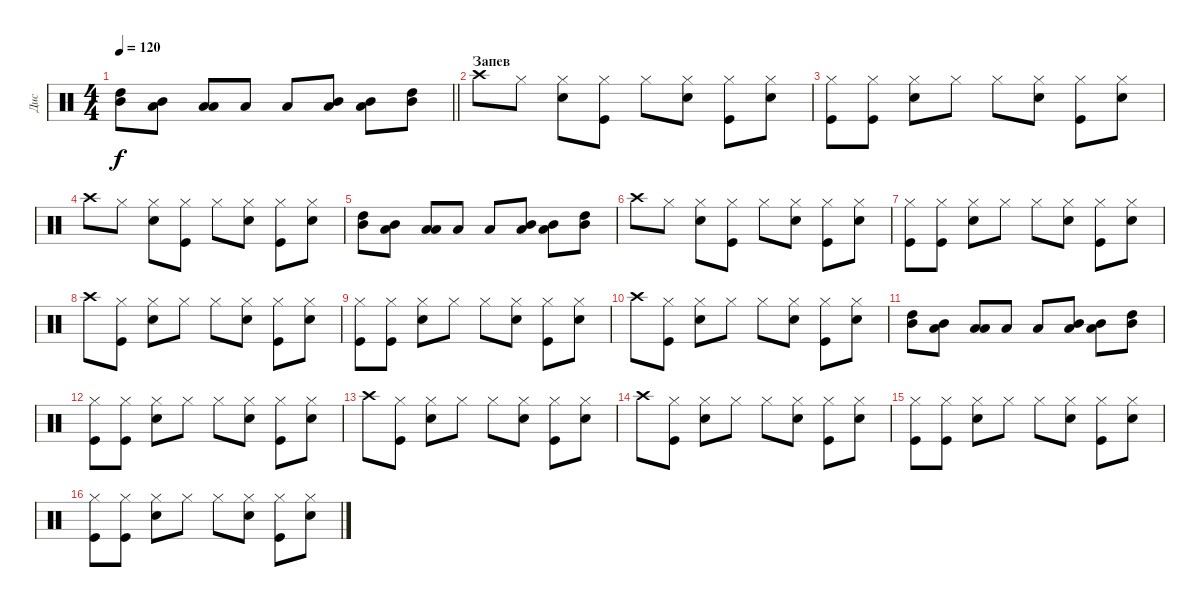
\track ("Дис" "Дис") {instrument percussion}
\staff {score}
\articulation defaults
\ts (4 4)
\tempo 120
\clef neutral
\barLineRight lightlight
\ks c
("High Tom (hit)" "Mid Tom (hit)").8{dy f} ("Mid Tom (hit)" "Low Tom (hit)").8 ("Low Tom (hit)" "Low Tom (hit)").8 "Low Tom (hit)".8 "Low Tom (hit)".8 ("Mid Tom (hit)" "Low Tom (hit)").8 ("Mid Tom (hit)" "Low Tom (hit)").8 ("High Tom (hit)" "Mid Tom (hit)").8 |
\section ("" "Запев")
"Crash high (hit)".8 "Hi-Hat (closed)".8 ("Hi-Hat (closed)" "Snare (hit) 2").8 ("Hi-Hat (closed)" "Kick (hit)").8 "Hi-Hat (closed)".8 ("Hi-Hat (closed)" "Snare (hit) 2").8 ("Hi-Hat (closed)" "Kick (hit)").8 ("Hi-Hat (closed)" "Snare (hit) 2").8 |
("Hi-Hat (closed)" "Kick (hit)").8 ("Hi-Hat (closed)" "Kick (hit)").8 ("Hi-Hat (closed)" "Snare (hit) 2").8 "Hi-Hat (closed)".8 "Hi-Hat (closed)".8 ("Hi-Hat (closed)" "Snare (hit) 2").8 ("Hi-Hat (closed)" "Kick (hit)").8 ("Hi-Hat (closed)" "Snare (hit) 2").8 |
"Crash high (hit)".8 "Hi-Hat (closed)".8 ("Hi-Hat (closed)" "Snare (hit) 2").8 ("Hi-Hat (closed)" "Kick (hit)").8 "Hi-Hat (closed)".8 ("Hi-Hat (closed)" "Snare (hit) 2").8 ("Hi-Hat (closed)" "Kick (hit)").8 ("Hi-Hat (closed)" "Snare (hit) 2").8 |
("High Tom (hit)" "Mid Tom (hit)").8 ("Mid Tom (hit)" "Low Tom (hit)").8 ("Low Tom (hit)" "Low Tom (hit)").8 "Low Tom (hit)".8 "Low Tom (hit)".8 ("Mid Tom (hit)" "Low Tom (hit)").8 ("Mid Tom (hit)" "Low Tom (hit)").8 ("High Tom (hit)" "Mid Tom (hit)").8 |
"Crash high (hit)".8 "Hi-Hat (closed)".8 ("Hi-Hat (closed)" "Snare (hit) 2").8 ("Hi-Hat (closed)" "Kick (hit)").8 "Hi-Hat (closed)".8 ("Hi-Hat (closed)" "Snare (hit) 2").8 ("Hi-Hat (closed)" "Kick (hit)").8 ("Hi-Hat (closed)" "Snare (hit) 2").8 |
("Hi-Hat (closed)" "Kick (hit)").8 ("Hi-Hat (closed)" "Kick (hit)").8 ("Hi-Hat (closed)" "Snare (hit) 2").8 "Hi-Hat (closed)".8 "Hi-Hat (closed)".8 ("Hi-Hat (closed)" "Snare (hit) 2").8 ("Hi-Hat (closed)" "Kick (hit)").8 ("Hi-Hat (closed)" "Snare (hit) 2").8 |
"Crash high (hit)".8 ("Hi-Hat (closed)" "Kick (hit)").8 ("Hi-Hat (closed)" "Snare (hit) 2").8 "Hi-Hat (closed)".8 "Hi-Hat (closed)".8 ("Hi-Hat (closed)" "Snare (hit) 2").8 ("Hi-Hat (closed)" "Kick (hit)").8 ("Hi-Hat (closed)" "Snare (hit) 2").8 |
("Hi-Hat (closed)" "Kick (hit)").8 ("Hi-Hat (closed)" "Kick (hit)").8 ("Hi-Hat (closed)" "Snare (hit) 2").8 "Hi-Hat (closed)".8 "Hi-Hat (closed)".8 ("Hi-Hat (closed)" "Snare (hit) 2").8 ("Hi-Hat (closed)" "Kick (hit)").8 ("Hi-Hat (closed)" "Snare (hit) 2").8 |
"Crash high (hit)".8 ("Hi-Hat (closed)" "Kick (hit)").8 ("Hi-Hat (closed)" "Snare (hit) 2").8 "Hi-Hat (closed)".8 "Hi-Hat (closed)".8 ("Hi-Hat (closed)" "Snare (hit) 2").8 ("Hi-Hat (closed)" "Kick (hit)").8 ("Hi-Hat (closed)" "Snare (hit) 2").8 |
("High Tom (hit)" "Mid Tom (hit)").8 ("Mid Tom (hit)" "Low Tom (hit)").8 ("Low Tom (hit)" "Low Tom (hit)").8 "Low Tom (hit)".8 "Low Tom (hit)".8 ("Mid Tom (hit)" "Low Tom (hit)").8 ("Mid Tom (hit)" "Low Tom (hit)").8 ("High Tom (hit)" "Mid Tom (hit)").8 |
("Hi-Hat (closed)" "Kick (hit)").8 ("Hi-Hat (closed)" "Kick (hit)").8 ("Hi-Hat (closed)" "Snare (hit) 2").8 "Hi-Hat (closed)".8 "Hi-Hat (closed)".8 ("Hi-Hat (closed)" "Snare (hit) 2").8 ("Hi-Hat (closed)" "Kick (hit)").8 ("Hi-Hat (closed)" "Snare (hit) 2").8 |
"Crash high (hit)".8 ("Hi-Hat (closed)" "Kick (hit)").8 ("Hi-Hat (closed)" "Snare (hit) 2").8 "Hi-Hat (closed)".8 "Hi-Hat (closed)".8 ("Hi-Hat (closed)" "Snare (hit) 2").8 ("Hi-Hat (closed)" "Kick (hit)").8 ("Hi-Hat (closed)" "Snare (hit) 2").8 |
"Crash high (hit)".8 ("Hi-Hat (closed)" "Kick (hit)").8 ("Hi-Hat (closed)" "Snare (hit) 2").8 "Hi-Hat (closed)".8 "Hi-Hat (closed)".8 ("Hi-Hat (closed)" "Snare (hit) 2").8 ("Hi-Hat (closed)" "Kick (hit)").8 ("Hi-Hat (closed)" "Snare (hit) 2").8 |
("Hi-Hat (closed)" "Kick (hit)").8 ("Hi-Hat (closed)" "Kick (hit)").8 ("Hi-Hat (closed)" "Snare (hit) 2").8 "Hi-Hat (closed)".8 "Hi-Hat (closed)".8 ("Hi-Hat (closed)" "Snare (hit) 2").8 ("Hi-Hat (closed)" "Kick (hit)").8 ("Hi-Hat (closed)" "Snare (hit) 2").8 |
("Hi-Hat (closed)" "Kick (hit)").8 ("Hi-Hat (closed)" "Kick (hit)").8 ("Hi-Hat (closed)" "Snare (hit) 2").8 "Hi-Hat (closed)".8 "Hi-Hat (closed)".8 ("Hi-Hat (closed)" "Snare (hit) 2").8 ("Hi-Hat (closed)" "Kick (hit)").8 ("Hi-Hat (closed)" "Snare (hit) 2").8
